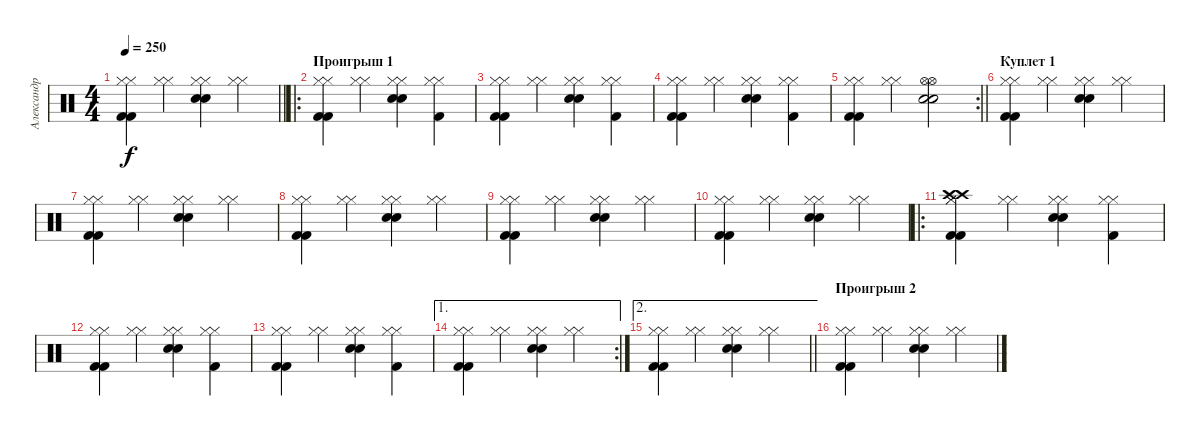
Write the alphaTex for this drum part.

\track ("Александр Андрюшкин" "Александр ") {instrument percussion}
\staff {score}
\articulation defaults
\ts (4 4)
\tempo 250
\clef neutral
\barLineRight lightlight
\ks c
("Hi-Hat (closed)" "Hi-Hat (closed)" "Kick (hit) 2" "Kick (hit) 2").4{dy f} ("Hi-Hat (closed)" "Hi-Hat (closed)").4 ("Hi-Hat (closed)" "Hi-Hat (closed)" "Snare (hit) 2" "Snare (hit) 2").4 ("Hi-Hat (closed)" "Hi-Hat (closed)").4 |
\ro
\section ("" "Проигрыш 1")
("Hi-Hat (closed)" "Hi-Hat (closed)" "Kick (hit) 2" "Kick (hit) 2").4 ("Hi-Hat (closed)" "Hi-Hat (closed)").4 ("Hi-Hat (closed)" "Hi-Hat (closed)" "Snare (hit) 2" "Snare (hit) 2").4 ("Hi-Hat (closed)" "Hi-Hat (closed)" "Kick (hit) 2").4 |
("Hi-Hat (closed)" "Hi-Hat (closed)" "Kick (hit) 2" "Kick (hit) 2").4 ("Hi-Hat (closed)" "Hi-Hat (closed)").4 ("Hi-Hat (closed)" "Hi-Hat (closed)" "Snare (hit) 2" "Snare (hit) 2").4 ("Hi-Hat (closed)" "Hi-Hat (closed)" "Kick (hit) 2").4 |
("Hi-Hat (closed)" "Hi-Hat (closed)" "Kick (hit) 2" "Kick (hit) 2").4 ("Hi-Hat (closed)" "Hi-Hat (closed)").4 ("Hi-Hat (closed)" "Hi-Hat (closed)" "Snare (hit) 2" "Snare (hit) 2").4 ("Hi-Hat (closed)" "Hi-Hat (closed)" "Kick (hit) 2").4 |
\rc 2
\barLineRight lightlight
("Hi-Hat (closed)" "Hi-Hat (closed)" "Kick (hit) 2" "Kick (hit) 2").4 ("Hi-Hat (closed)" "Hi-Hat (closed)").4 ("Hi-Hat (open)" "Hi-Hat (open)" "Snare (hit) 2" "Snare (hit) 2").2 |
\section ("" "Куплет 1 ")
("Hi-Hat (closed)" "Hi-Hat (closed)" "Kick (hit) 2" "Kick (hit) 2").4 ("Hi-Hat (closed)" "Hi-Hat (closed)").4 ("Hi-Hat (closed)" "Hi-Hat (closed)" "Snare (hit) 2" "Snare (hit) 2").4 ("Hi-Hat (closed)" "Hi-Hat (closed)").4 |
("Hi-Hat (closed)" "Hi-Hat (closed)" "Kick (hit) 2" "Kick (hit) 2").4 ("Hi-Hat (closed)" "Hi-Hat (closed)").4 ("Hi-Hat (closed)" "Hi-Hat (closed)" "Snare (hit) 2" "Snare (hit) 2").4 ("Hi-Hat (closed)" "Hi-Hat (closed)").4 |
("Hi-Hat (closed)" "Hi-Hat (closed)" "Kick (hit) 2" "Kick (hit) 2").4 ("Hi-Hat (closed)" "Hi-Hat (closed)").4 ("Hi-Hat (closed)" "Hi-Hat (closed)" "Snare (hit) 2" "Snare (hit) 2").4 ("Hi-Hat (closed)" "Hi-Hat (closed)").4 |
("Hi-Hat (closed)" "Hi-Hat (closed)" "Kick (hit) 2" "Kick (hit) 2").4 ("Hi-Hat (closed)" "Hi-Hat (closed)").4 ("Hi-Hat (closed)" "Hi-Hat (closed)" "Snare (hit) 2" "Snare (hit) 2").4 ("Hi-Hat (closed)" "Hi-Hat (closed)").4 |
("Hi-Hat (closed)" "Hi-Hat (closed)" "Kick (hit) 2" "Kick (hit) 2").4 ("Hi-Hat (closed)" "Hi-Hat (closed)").4 ("Hi-Hat (closed)" "Hi-Hat (closed)" "Snare (hit) 2" "Snare (hit) 2").4 ("Hi-Hat (closed)" "Hi-Hat (closed)").4 |
\ro
("Hi-Hat (closed)" "Hi-Hat (closed)" "Crash high (hit)" "Crash high (hit)" "Kick (hit) 2" "Kick (hit) 2").4 ("Hi-Hat (closed)" "Hi-Hat (closed)").4 ("Hi-Hat (closed)" "Hi-Hat (closed)" "Snare (hit) 2" "Snare (hit) 2").4 ("Hi-Hat (closed)" "Hi-Hat (closed)" "Kick (hit) 2").4 |
("Hi-Hat (closed)" "Hi-Hat (closed)" "Kick (hit) 2" "Kick (hit) 2").4 ("Hi-Hat (closed)" "Hi-Hat (closed)").4 ("Hi-Hat (closed)" "Hi-Hat (closed)" "Snare (hit) 2" "Snare (hit) 2").4 ("Hi-Hat (closed)" "Hi-Hat (closed)" "Kick (hit) 2").4 |
("Hi-Hat (closed)" "Hi-Hat (closed)" "Kick (hit) 2" "Kick (hit) 2").4 ("Hi-Hat (closed)" "Hi-Hat (closed)").4 ("Hi-Hat (closed)" "Hi-Hat (closed)" "Snare (hit) 2" "Snare (hit) 2").4 ("Hi-Hat (closed)" "Hi-Hat (closed)" "Kick (hit) 2").4 |
\ae 1
\rc 2
("Hi-Hat (closed)" "Hi-Hat (closed)" "Kick (hit) 2" "Kick (hit) 2").4 ("Hi-Hat (closed)" "Hi-Hat (closed)").4 ("Hi-Hat (closed)" "Hi-Hat (closed)" "Snare (hit) 2" "Snare (hit) 2").4 ("Hi-Hat (closed)" "Hi-Hat (closed)").4 |
\ae 2
\barLineRight lightlight
("Hi-Hat (closed)" "Hi-Hat (closed)" "Kick (hit) 2" "Kick (hit) 2").4 ("Hi-Hat (closed)" "Hi-Hat (closed)").4 ("Hi-Hat (closed)" "Hi-Hat (closed)" "Snare (hit) 2" "Snare (hit) 2").4 ("Hi-Hat (closed)" "Hi-Hat (closed)").4 |
\section ("" "Проигрыш 2")
("Hi-Hat (closed)" "Hi-Hat (closed)" "Kick (hit) 2" "Kick (hit) 2").4 ("Hi-Hat (closed)" "Hi-Hat (closed)").4 ("Hi-Hat (closed)" "Hi-Hat (closed)" "Snare (hit) 2" "Snare (hit) 2").4 ("Hi-Hat (closed)" "Hi-Hat (closed)").4
